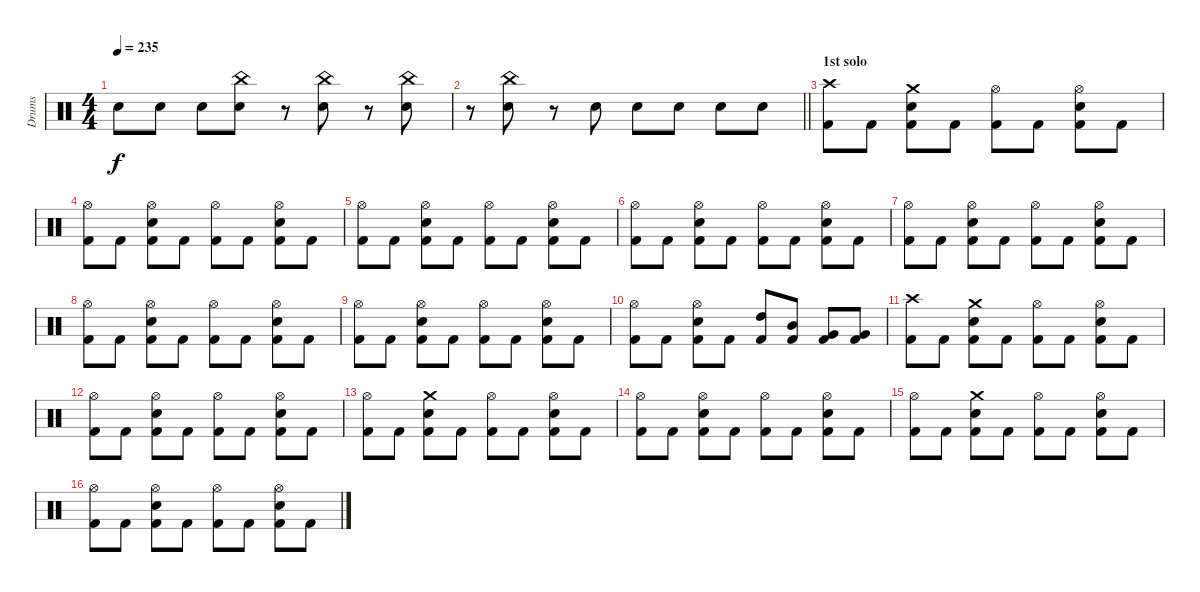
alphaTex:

\track ("Drums" "Drums") {instrument percussion}
\staff {score}
\articulation defaults
\ts (4 4)
\tempo 235
\clef neutral
\ks aminor "Electric Snare (hit)".8{dy f} "Electric Snare (hit)".8 "Electric Snare (hit)".8
("China (hit)" "Electric Snare (hit)").8 r.8 ("China (hit)" "Electric Snare (hit)").8 r.8 ("Electric Snare (hit)" "China (hit)").8 |
\barLineRight lightlight
r.8 ("China (hit)" "Electric Snare (hit)").8 r.8 "Electric Snare (hit)".8 "Electric Snare (hit)".8 "Electric Snare (hit)".8 "Electric Snare (hit)".8 "Electric Snare (hit)".8 |
\section ("" "1st solo")
("Crash high (hit)" "Kick (hit) 2").8 "Kick (hit) 2".8 ("Electric Snare (hit)" "Crash medium (hit)" "Kick (hit) 2").8 "Kick (hit) 2".8 ("Hi-Hat (open)" "Kick (hit) 2").8 "Kick (hit) 2".8 ("Hi-Hat (open)" "Electric Snare (hit)" "Kick (hit) 2").8 "Kick (hit) 2".8 |
("Hi-Hat (open)" "Kick (hit) 2").8 "Kick (hit) 2".8 ("Hi-Hat (open)" "Electric Snare (hit)" "Kick (hit) 2").8 "Kick (hit) 2".8 ("Hi-Hat (open)" "Kick (hit) 2").8 "Kick (hit) 2".8 ("Hi-Hat (open)" "Electric Snare (hit)" "Kick (hit) 2").8 "Kick (hit) 2".8 |
("Hi-Hat (open)" "Kick (hit) 2").8 "Kick (hit) 2".8 ("Hi-Hat (open)" "Electric Snare (hit)" "Kick (hit) 2").8 "Kick (hit) 2".8 ("Hi-Hat (open)" "Kick (hit) 2").8 "Kick (hit) 2".8 ("Hi-Hat (open)" "Electric Snare (hit)" "Kick (hit) 2").8 "Kick (hit) 2".8 |
("Hi-Hat (open)" "Kick (hit) 2").8 "Kick (hit) 2".8 ("Hi-Hat (open)" "Electric Snare (hit)" "Kick (hit) 2").8 "Kick (hit) 2".8 ("Hi-Hat (open)" "Kick (hit) 2").8 "Kick (hit) 2".8 ("Hi-Hat (open)" "Electric Snare (hit)" "Kick (hit) 2").8 "Kick (hit) 2".8 |
("Hi-Hat (open)" "Kick (hit) 2").8 "Kick (hit) 2".8 ("Hi-Hat (open)" "Electric Snare (hit)" "Kick (hit) 2").8 "Kick (hit) 2".8 ("Hi-Hat (open)" "Kick (hit) 2").8 "Kick (hit) 2".8 ("Hi-Hat (open)" "Electric Snare (hit)" "Kick (hit) 2").8 "Kick (hit) 2".8 |
("Hi-Hat (open)" "Kick (hit) 2").8 "Kick (hit) 2".8 ("Hi-Hat (open)" "Electric Snare (hit)" "Kick (hit) 2").8 "Kick (hit) 2".8 ("Hi-Hat (open)" "Kick (hit) 2").8 "Kick (hit) 2".8 ("Hi-Hat (open)" "Electric Snare (hit)" "Kick (hit) 2").8 "Kick (hit) 2".8 |
("Hi-Hat (open)" "Kick (hit) 2").8 "Kick (hit) 2".8 ("Hi-Hat (open)" "Electric Snare (hit)" "Kick (hit) 2").8 "Kick (hit) 2".8 ("Hi-Hat (open)" "Kick (hit) 2").8 "Kick (hit) 2".8 ("Hi-Hat (open)" "Electric Snare (hit)" "Kick (hit) 2").8 "Kick (hit) 2".8 |
("Hi-Hat (open)" "Kick (hit) 2").8 "Kick (hit) 2".8 ("Hi-Hat (open)" "Electric Snare (hit)" "Kick (hit) 2").8 "Kick (hit) 2".8 ("High Tom (hit)" "Kick (hit) 2").8 ("Mid Tom (hit)" "Kick (hit) 2").8 ("Very Low Tom (hit)" "Kick (hit) 2").8 ("Very Low Tom (hit)" "Kick (hit) 2").8 |
("Crash high (hit)" "Kick (hit) 2").8 "Kick (hit) 2".8 ("Electric Snare (hit)" "Crash medium (hit)" "Kick (hit) 2").8 "Kick (hit) 2".8 ("Hi-Hat (open)" "Kick (hit) 2").8 "Kick (hit) 2".8 ("Hi-Hat (open)" "Electric Snare (hit)" "Kick (hit) 2").8 "Kick (hit) 2".8 |
("Hi-Hat (open)" "Kick (hit) 2").8 "Kick (hit) 2".8 ("Hi-Hat (open)" "Electric Snare (hit)" "Kick (hit) 2").8 "Kick (hit) 2".8 ("Hi-Hat (open)" "Kick (hit) 2").8 "Kick (hit) 2".8 ("Hi-Hat (open)" "Electric Snare (hit)" "Kick (hit) 2").8 "Kick (hit) 2".8 |
("Hi-Hat (open)" "Kick (hit) 2").8 "Kick (hit) 2".8 ("Crash medium (hit)" "Electric Snare (hit)" "Kick (hit) 2").8 "Kick (hit) 2".8 ("Hi-Hat (open)" "Kick (hit) 2").8 "Kick (hit) 2".8 ("Hi-Hat (open)" "Electric Snare (hit)" "Kick (hit) 2").8 "Kick (hit) 2".8 |
("Hi-Hat (open)" "Kick (hit) 2").8 "Kick (hit) 2".8 ("Hi-Hat (open)" "Electric Snare (hit)" "Kick (hit) 2").8 "Kick (hit) 2".8 ("Hi-Hat (open)" "Kick (hit) 2").8 "Kick (hit) 2".8 ("Hi-Hat (open)" "Electric Snare (hit)" "Kick (hit) 2").8 "Kick (hit) 2".8 |
("Hi-Hat (open)" "Kick (hit) 2").8 "Kick (hit) 2".8 ("Crash medium (hit)" "Electric Snare (hit)" "Kick (hit) 2").8 "Kick (hit) 2".8 ("Hi-Hat (open)" "Kick (hit) 2").8 "Kick (hit) 2".8 ("Hi-Hat (open)" "Electric Snare (hit)" "Kick (hit) 2").8 "Kick (hit) 2".8 |
("Hi-Hat (open)" "Kick (hit) 2").8 "Kick (hit) 2".8 ("Hi-Hat (open)" "Electric Snare (hit)" "Kick (hit) 2").8 "Kick (hit) 2".8 ("Hi-Hat (open)" "Kick (hit) 2").8 "Kick (hit) 2".8 ("Hi-Hat (open)" "Electric Snare (hit)" "Kick (hit) 2").8 "Kick (hit) 2".8
